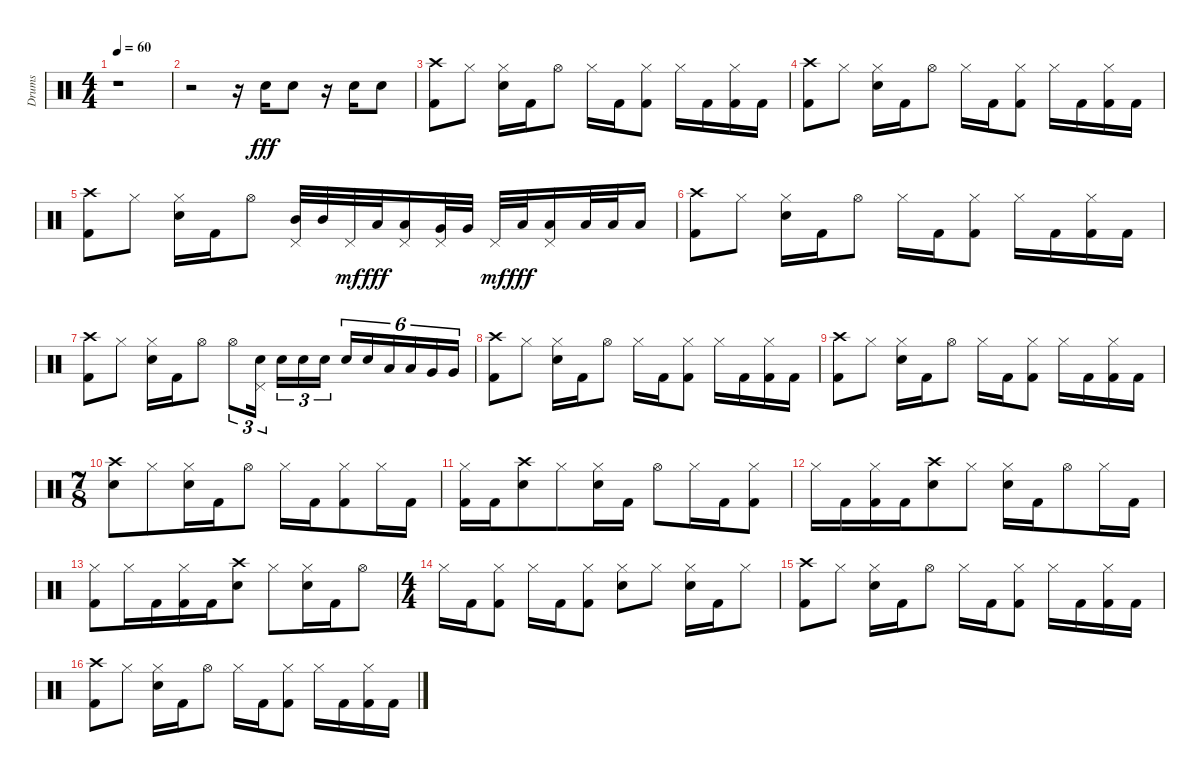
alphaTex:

\track ("Drums" "Drums") {instrument percussion}
\staff {score}
\articulation defaults
\ts (4 4)
\tempo 60
\clef neutral
\ks c
r.1{dy fff} |
r.2 r.16 "Snare (hit) 2".16 "Snare (hit) 2".8 r.16 "Snare (hit) 2".16 "Snare (hit) 2".8 |
("Crash high (hit)" "Kick (hit) 2").8 "Hi-Hat (closed)".8 ("Hi-Hat (closed)" "Snare (hit) 2").16 "Kick (hit) 2".16 "Hi-Hat (open)".8 "Hi-Hat (closed)".16 "Kick (hit) 2".16 ("Hi-Hat (closed)" "Kick (hit) 2").8 "Hi-Hat (closed)".16 "Kick (hit) 2".16 ("Hi-Hat (closed)" "Kick (hit) 2").16 "Kick (hit) 2".16 |
("Crash high (hit)" "Kick (hit) 2").8 "Hi-Hat (closed)".8 ("Hi-Hat (closed)" "Snare (hit) 2").16 "Kick (hit) 2".16 "Hi-Hat (open)".8 "Hi-Hat (closed)".16 "Kick (hit) 2".16 ("Hi-Hat (closed)" "Kick (hit) 2").8 "Hi-Hat (closed)".16 "Kick (hit) 2".16 ("Hi-Hat (closed)" "Kick (hit) 2").16 "Kick (hit) 2".16 |
("Crash high (hit)" "Kick (hit) 2").8 "Hi-Hat (closed)".8 ("Hi-Hat (closed)" "Snare (hit) 2").16 "Kick (hit) 2".16 "Hi-Hat (open)".8 ("Pedal Hi-Hat (hit)" "Mid Tom (hit)").32 "Mid Tom (hit)".32 "Pedal Hi-Hat (hit)".32{dy mf} "Low Tom (hit)".32{dy fff} ("Pedal Hi-Hat (hit)" "Low Tom (hit)").16 ("Pedal Hi-Hat (hit)" "Very Low Tom (hit)").32 "Very Low Tom (hit)".32 "Pedal Hi-Hat (hit)".32{dy mf} "Low Floor Tom (hit)".32{dy fff} ("Pedal Hi-Hat (hit)" "Low Floor Tom (hit)").16 "Low Floor Tom (hit)".32 "Low Floor Tom (hit)".32 "Low Floor Tom (hit)".16 |
("Crash high (hit)" "Kick (hit) 2").8 "Hi-Hat (closed)".8 ("Hi-Hat (closed)" "Snare (hit) 2").16 "Kick (hit) 2".16 "Hi-Hat (open)".8 "Hi-Hat (closed)".16 "Kick (hit) 2".16 ("Hi-Hat (closed)" "Kick (hit) 2").8 "Hi-Hat (closed)".16 "Kick (hit) 2".16 ("Hi-Hat (closed)" "Kick (hit) 2").16 "Kick (hit) 2".16 |
("Crash high (hit)" "Kick (hit) 2").8 "Hi-Hat (closed)".8 ("Hi-Hat (closed)" "Snare (hit) 2").16 "Kick (hit) 2".16 "Hi-Hat (open)".8 "Hi-Hat (open)".8{tu (3 2)} ("Pedal Hi-Hat (hit)" "Snare (hit) 2").16{tu (3 2)} "Snare (hit) 2".16{tu (3 2)} "Snare (hit) 2".16{tu (3 2)} "Snare (hit) 2".16{tu (3 2)} "Snare (hit) 2".16{tu (6 4)} "Snare (hit) 2".16{tu (6 4)} "Low Tom (hit)".16{tu (6 4)} "Low Tom (hit)".16{tu (6 4)} "Very Low Tom (hit)".16{tu (6 4)} "Very Low Tom (hit)".16{tu (6 4)} |
("Crash high (hit)" "Kick (hit) 2").8 "Hi-Hat (closed)".8 ("Hi-Hat (closed)" "Snare (hit) 2").16 "Kick (hit) 2".16 "Hi-Hat (open)".8 "Hi-Hat (closed)".16 "Kick (hit) 2".16 ("Hi-Hat (closed)" "Kick (hit) 2").8 "Hi-Hat (closed)".16 "Kick (hit) 2".16 ("Hi-Hat (closed)" "Kick (hit) 2").16 "Kick (hit) 2".16 |
("Crash high (hit)" "Kick (hit) 2").8 "Hi-Hat (closed)".8 ("Hi-Hat (closed)" "Snare (hit) 2").16 "Kick (hit) 2".16 "Hi-Hat (open)".8 "Hi-Hat (closed)".16 "Kick (hit) 2".16 ("Hi-Hat (closed)" "Kick (hit) 2").8 "Hi-Hat (closed)".16 "Kick (hit) 2".16 ("Hi-Hat (closed)" "Kick (hit) 2").16 "Kick (hit) 2".16 |
\ts (7 8)
("Crash high (hit)" "Snare (hit) 2").8 "Hi-Hat (closed)".8 ("Hi-Hat (closed)" "Snare (hit) 2").16 "Kick (hit) 2".16 "Hi-Hat (open)".8 "Hi-Hat (closed)".16 "Kick (hit) 2".16 ("Hi-Hat (closed)" "Kick (hit) 2").8 "Hi-Hat (closed)".16 "Kick (hit) 2".16 |
("Hi-Hat (closed)" "Kick (hit) 2").16 "Kick (hit) 2".16 ("Crash high (hit)" "Snare (hit) 2").8 "Hi-Hat (closed)".8 ("Hi-Hat (closed)" "Snare (hit) 2").16 "Kick (hit) 2".16 "Hi-Hat (open)".8 "Hi-Hat (closed)".16 "Kick (hit) 2".16 ("Hi-Hat (closed)" "Kick (hit) 2").8 |
"Hi-Hat (closed)".16 "Kick (hit) 2".16 ("Hi-Hat (closed)" "Kick (hit) 2").16 "Kick (hit) 2".16 ("Crash high (hit)" "Snare (hit) 2").8 "Hi-Hat (closed)".8 ("Hi-Hat (closed)" "Snare (hit) 2").16 "Kick (hit) 2".16 "Hi-Hat (open)".8 "Hi-Hat (closed)".16 "Kick (hit) 2".16 |
("Hi-Hat (closed)" "Kick (hit) 2").8 "Hi-Hat (closed)".16 "Kick (hit) 2".16 ("Hi-Hat (closed)" "Kick (hit) 2").16 "Kick (hit) 2".16 ("Crash high (hit)" "Snare (hit) 2").8 "Hi-Hat (closed)".8 ("Hi-Hat (closed)" "Snare (hit) 2").16 "Kick (hit) 2".16 "Hi-Hat (open)".8 |
\ts (4 4)
"Hi-Hat (closed)".16 "Kick (hit) 2".16 ("Hi-Hat (closed)" "Kick (hit) 2").8 "Hi-Hat (closed)".16 "Kick (hit) 2".16 ("Hi-Hat (closed)" "Kick (hit) 2").8 ("Hi-Hat (closed)" "Snare (hit) 2").8 "Hi-Hat (closed)".8 ("Hi-Hat (closed)" "Snare (hit) 2").16 "Kick (hit) 2".16 "Hi-Hat (closed)".8 |
("Crash high (hit)" "Kick (hit) 2").8 "Hi-Hat (closed)".8 ("Hi-Hat (closed)" "Snare (hit) 2").16 "Kick (hit) 2".16 "Hi-Hat (open)".8 "Hi-Hat (closed)".16 "Kick (hit) 2".16 ("Hi-Hat (closed)" "Kick (hit) 2").8 "Hi-Hat (closed)".16 "Kick (hit) 2".16 ("Hi-Hat (closed)" "Kick (hit) 2").16 "Kick (hit) 2".16 |
("Crash high (hit)" "Kick (hit) 2").8 "Hi-Hat (closed)".8 ("Hi-Hat (closed)" "Snare (hit) 2").16 "Kick (hit) 2".16 "Hi-Hat (open)".8 "Hi-Hat (closed)".16 "Kick (hit) 2".16 ("Hi-Hat (closed)" "Kick (hit) 2").8 "Hi-Hat (closed)".16 "Kick (hit) 2".16 ("Hi-Hat (closed)" "Kick (hit) 2").16 "Kick (hit) 2".16
